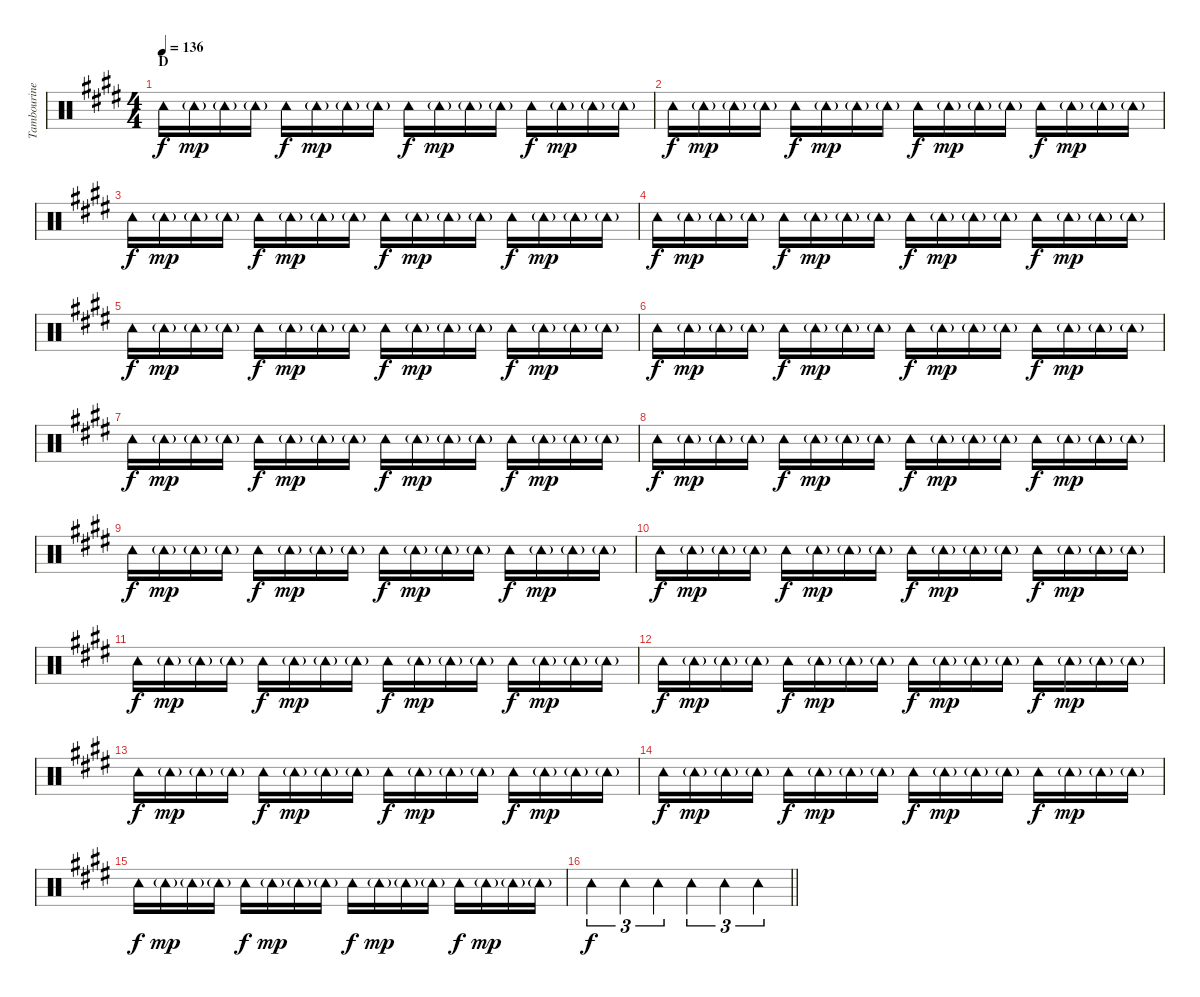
\track ("Tambourine" "Tambourine") {instrument percussion}
\staff {score}
\articulation defaults
\ts (4 4)
\section ("" "D")
\tempo 136
\clef neutral
\ks e "Tambourine (hit)".16{dy f} "Tambourine (hit)"{g}.16{dy mp} "Tambourine (hit)"{g}.16 "Tambourine (hit)"{g}.16 "Tambourine (hit)".16{dy f} "Tambourine (hit)"{g}.16{dy mp} "Tambourine (hit)"{g}.16 "Tambourine (hit)"{g}.16 "Tambourine (hit)".16{dy f} "Tambourine (hit)"{g}.16{dy mp} "Tambourine (hit)"{g}.16 "Tambourine (hit)"{g}.16 "Tambourine (hit)".16{dy f} "Tambourine (hit)"{g}.16{dy mp} "Tambourine (hit)"{g}.16 "Tambourine (hit)"{g}.16
|
"Tambourine (hit)".16{dy f} "Tambourine (hit)"{g}.16{dy mp} "Tambourine (hit)"{g}.16 "Tambourine (hit)"{g}.16 "Tambourine (hit)".16{dy f} "Tambourine (hit)"{g}.16{dy mp} "Tambourine (hit)"{g}.16 "Tambourine (hit)"{g}.16 "Tambourine (hit)".16{dy f} "Tambourine (hit)"{g}.16{dy mp} "Tambourine (hit)"{g}.16 "Tambourine (hit)"{g}.16 "Tambourine (hit)".16{dy f} "Tambourine (hit)"{g}.16{dy mp} "Tambourine (hit)"{g}.16 "Tambourine (hit)"{g}.16 |
"Tambourine (hit)".16{dy f} "Tambourine (hit)"{g}.16{dy mp} "Tambourine (hit)"{g}.16 "Tambourine (hit)"{g}.16 "Tambourine (hit)".16{dy f} "Tambourine (hit)"{g}.16{dy mp} "Tambourine (hit)"{g}.16 "Tambourine (hit)"{g}.16 "Tambourine (hit)".16{dy f} "Tambourine (hit)"{g}.16{dy mp} "Tambourine (hit)"{g}.16 "Tambourine (hit)"{g}.16 "Tambourine (hit)".16{dy f} "Tambourine (hit)"{g}.16{dy mp} "Tambourine (hit)"{g}.16 "Tambourine (hit)"{g}.16 |
"Tambourine (hit)".16{dy f} "Tambourine (hit)"{g}.16{dy mp} "Tambourine (hit)"{g}.16 "Tambourine (hit)"{g}.16 "Tambourine (hit)".16{dy f} "Tambourine (hit)"{g}.16{dy mp} "Tambourine (hit)"{g}.16 "Tambourine (hit)"{g}.16 "Tambourine (hit)".16{dy f} "Tambourine (hit)"{g}.16{dy mp} "Tambourine (hit)"{g}.16 "Tambourine (hit)"{g}.16 "Tambourine (hit)".16{dy f} "Tambourine (hit)"{g}.16{dy mp} "Tambourine (hit)"{g}.16 "Tambourine (hit)"{g}.16 |
"Tambourine (hit)".16{dy f} "Tambourine (hit)"{g}.16{dy mp} "Tambourine (hit)"{g}.16 "Tambourine (hit)"{g}.16 "Tambourine (hit)".16{dy f} "Tambourine (hit)"{g}.16{dy mp} "Tambourine (hit)"{g}.16 "Tambourine (hit)"{g}.16 "Tambourine (hit)".16{dy f} "Tambourine (hit)"{g}.16{dy mp} "Tambourine (hit)"{g}.16 "Tambourine (hit)"{g}.16 "Tambourine (hit)".16{dy f} "Tambourine (hit)"{g}.16{dy mp} "Tambourine (hit)"{g}.16 "Tambourine (hit)"{g}.16 |
"Tambourine (hit)".16{dy f} "Tambourine (hit)"{g}.16{dy mp} "Tambourine (hit)"{g}.16 "Tambourine (hit)"{g}.16 "Tambourine (hit)".16{dy f} "Tambourine (hit)"{g}.16{dy mp} "Tambourine (hit)"{g}.16 "Tambourine (hit)"{g}.16 "Tambourine (hit)".16{dy f} "Tambourine (hit)"{g}.16{dy mp} "Tambourine (hit)"{g}.16 "Tambourine (hit)"{g}.16 "Tambourine (hit)".16{dy f} "Tambourine (hit)"{g}.16{dy mp} "Tambourine (hit)"{g}.16 "Tambourine (hit)"{g}.16 |
"Tambourine (hit)".16{dy f} "Tambourine (hit)"{g}.16{dy mp} "Tambourine (hit)"{g}.16 "Tambourine (hit)"{g}.16 "Tambourine (hit)".16{dy f} "Tambourine (hit)"{g}.16{dy mp} "Tambourine (hit)"{g}.16 "Tambourine (hit)"{g}.16 "Tambourine (hit)".16{dy f} "Tambourine (hit)"{g}.16{dy mp} "Tambourine (hit)"{g}.16 "Tambourine (hit)"{g}.16 "Tambourine (hit)".16{dy f} "Tambourine (hit)"{g}.16{dy mp} "Tambourine (hit)"{g}.16 "Tambourine (hit)"{g}.16 |
"Tambourine (hit)".16{dy f} "Tambourine (hit)"{g}.16{dy mp} "Tambourine (hit)"{g}.16 "Tambourine (hit)"{g}.16 "Tambourine (hit)".16{dy f} "Tambourine (hit)"{g}.16{dy mp} "Tambourine (hit)"{g}.16 "Tambourine (hit)"{g}.16 "Tambourine (hit)".16{dy f} "Tambourine (hit)"{g}.16{dy mp} "Tambourine (hit)"{g}.16 "Tambourine (hit)"{g}.16 "Tambourine (hit)".16{dy f} "Tambourine (hit)"{g}.16{dy mp} "Tambourine (hit)"{g}.16 "Tambourine (hit)"{g}.16 |
"Tambourine (hit)".16{dy f} "Tambourine (hit)"{g}.16{dy mp} "Tambourine (hit)"{g}.16 "Tambourine (hit)"{g}.16 "Tambourine (hit)".16{dy f} "Tambourine (hit)"{g}.16{dy mp} "Tambourine (hit)"{g}.16 "Tambourine (hit)"{g}.16 "Tambourine (hit)".16{dy f} "Tambourine (hit)"{g}.16{dy mp} "Tambourine (hit)"{g}.16 "Tambourine (hit)"{g}.16 "Tambourine (hit)".16{dy f} "Tambourine (hit)"{g}.16{dy mp} "Tambourine (hit)"{g}.16 "Tambourine (hit)"{g}.16 |
"Tambourine (hit)".16{dy f} "Tambourine (hit)"{g}.16{dy mp} "Tambourine (hit)"{g}.16 "Tambourine (hit)"{g}.16 "Tambourine (hit)".16{dy f} "Tambourine (hit)"{g}.16{dy mp} "Tambourine (hit)"{g}.16 "Tambourine (hit)"{g}.16 "Tambourine (hit)".16{dy f} "Tambourine (hit)"{g}.16{dy mp} "Tambourine (hit)"{g}.16 "Tambourine (hit)"{g}.16 "Tambourine (hit)".16{dy f} "Tambourine (hit)"{g}.16{dy mp} "Tambourine (hit)"{g}.16 "Tambourine (hit)"{g}.16 |
"Tambourine (hit)".16{dy f} "Tambourine (hit)"{g}.16{dy mp} "Tambourine (hit)"{g}.16 "Tambourine (hit)"{g}.16 "Tambourine (hit)".16{dy f} "Tambourine (hit)"{g}.16{dy mp} "Tambourine (hit)"{g}.16 "Tambourine (hit)"{g}.16 "Tambourine (hit)".16{dy f} "Tambourine (hit)"{g}.16{dy mp} "Tambourine (hit)"{g}.16 "Tambourine (hit)"{g}.16 "Tambourine (hit)".16{dy f} "Tambourine (hit)"{g}.16{dy mp} "Tambourine (hit)"{g}.16 "Tambourine (hit)"{g}.16 |
"Tambourine (hit)".16{dy f} "Tambourine (hit)"{g}.16{dy mp} "Tambourine (hit)"{g}.16 "Tambourine (hit)"{g}.16 "Tambourine (hit)".16{dy f} "Tambourine (hit)"{g}.16{dy mp} "Tambourine (hit)"{g}.16 "Tambourine (hit)"{g}.16 "Tambourine (hit)".16{dy f} "Tambourine (hit)"{g}.16{dy mp} "Tambourine (hit)"{g}.16 "Tambourine (hit)"{g}.16 "Tambourine (hit)".16{dy f} "Tambourine (hit)"{g}.16{dy mp} "Tambourine (hit)"{g}.16 "Tambourine (hit)"{g}.16 |
"Tambourine (hit)".16{dy f} "Tambourine (hit)"{g}.16{dy mp} "Tambourine (hit)"{g}.16 "Tambourine (hit)"{g}.16 "Tambourine (hit)".16{dy f} "Tambourine (hit)"{g}.16{dy mp} "Tambourine (hit)"{g}.16 "Tambourine (hit)"{g}.16 "Tambourine (hit)".16{dy f} "Tambourine (hit)"{g}.16{dy mp} "Tambourine (hit)"{g}.16 "Tambourine (hit)"{g}.16 "Tambourine (hit)".16{dy f} "Tambourine (hit)"{g}.16{dy mp} "Tambourine (hit)"{g}.16 "Tambourine (hit)"{g}.16 |
"Tambourine (hit)".16{dy f} "Tambourine (hit)"{g}.16{dy mp} "Tambourine (hit)"{g}.16 "Tambourine (hit)"{g}.16 "Tambourine (hit)".16{dy f} "Tambourine (hit)"{g}.16{dy mp} "Tambourine (hit)"{g}.16 "Tambourine (hit)"{g}.16 "Tambourine (hit)".16{dy f} "Tambourine (hit)"{g}.16{dy mp} "Tambourine (hit)"{g}.16 "Tambourine (hit)"{g}.16 "Tambourine (hit)".16{dy f} "Tambourine (hit)"{g}.16{dy mp} "Tambourine (hit)"{g}.16 "Tambourine (hit)"{g}.16 |
"Tambourine (hit)".16{dy f} "Tambourine (hit)"{g}.16{dy mp} "Tambourine (hit)"{g}.16 "Tambourine (hit)"{g}.16 "Tambourine (hit)".16{dy f} "Tambourine (hit)"{g}.16{dy mp} "Tambourine (hit)"{g}.16 "Tambourine (hit)"{g}.16 "Tambourine (hit)".16{dy f} "Tambourine (hit)"{g}.16{dy mp} "Tambourine (hit)"{g}.16 "Tambourine (hit)"{g}.16 "Tambourine (hit)".16{dy f} "Tambourine (hit)"{g}.16{dy mp} "Tambourine (hit)"{g}.16 "Tambourine (hit)"{g}.16 |
\barLineRight lightlight "Tambourine (hit)".4{tu (3 2) dy f} "Tambourine (hit)".4{tu (3 2)} "Tambourine (hit)".4{tu (3 2)} "Tambourine (hit)".4{tu (3 2)} "Tambourine (hit)".4{tu (3 2)} "Tambourine (hit)".4{tu (3 2)}
